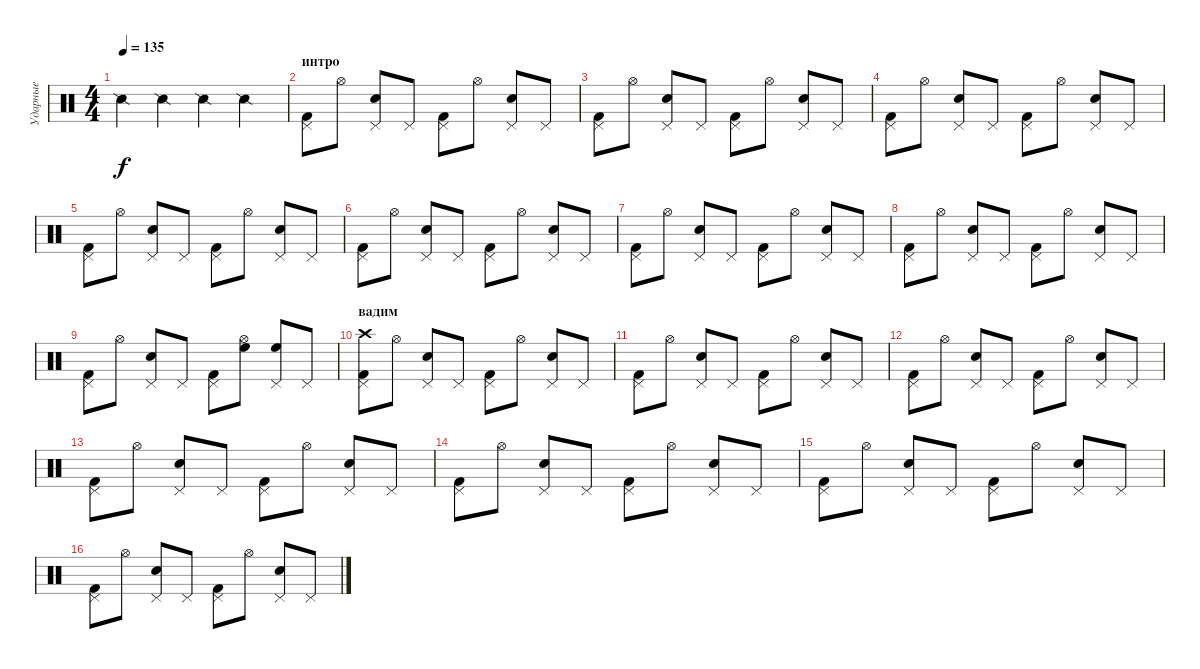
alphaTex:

\track ("Ударные" "Ударные") {instrument percussion}
\staff {score}
\articulation defaults
\ts (4 4)
\tempo 135
\clef neutral
\ks c "Snare (side stick) 2".4{dy f} "Snare (side stick) 2".4 "Snare (side stick) 2".4 "Snare (side stick) 2".4
|
\section ("" "интро")
("Pedal Hi-Hat (hit)" "Kick (hit) 2").8 "Hi-Hat (open)".8 ("Pedal Hi-Hat (hit)" "Snare (hit) 2").8 "Pedal Hi-Hat (hit)".8 ("Pedal Hi-Hat (hit)" "Kick (hit) 2").8 "Hi-Hat (open)".8 ("Pedal Hi-Hat (hit)" "Snare (hit) 2").8 "Pedal Hi-Hat (hit)".8 |
("Pedal Hi-Hat (hit)" "Kick (hit) 2").8 "Hi-Hat (open)".8 ("Pedal Hi-Hat (hit)" "Snare (hit) 2").8 "Pedal Hi-Hat (hit)".8 ("Pedal Hi-Hat (hit)" "Kick (hit) 2").8 "Hi-Hat (open)".8 ("Pedal Hi-Hat (hit)" "Snare (hit) 2").8 "Pedal Hi-Hat (hit)".8 |
("Pedal Hi-Hat (hit)" "Kick (hit) 2").8 "Hi-Hat (open)".8 ("Pedal Hi-Hat (hit)" "Snare (hit) 2").8 "Pedal Hi-Hat (hit)".8 ("Pedal Hi-Hat (hit)" "Kick (hit) 2").8 "Hi-Hat (open)".8 ("Pedal Hi-Hat (hit)" "Snare (hit) 2").8 "Pedal Hi-Hat (hit)".8 |
("Pedal Hi-Hat (hit)" "Kick (hit) 2").8 "Hi-Hat (open)".8 ("Pedal Hi-Hat (hit)" "Snare (hit) 2").8 "Pedal Hi-Hat (hit)".8 ("Pedal Hi-Hat (hit)" "Kick (hit) 2").8 "Hi-Hat (open)".8 ("Pedal Hi-Hat (hit)" "Snare (hit) 2").8 "Pedal Hi-Hat (hit)".8 |
("Pedal Hi-Hat (hit)" "Kick (hit) 2").8 "Hi-Hat (open)".8 ("Pedal Hi-Hat (hit)" "Snare (hit) 2").8 "Pedal Hi-Hat (hit)".8 ("Pedal Hi-Hat (hit)" "Kick (hit) 2").8 "Hi-Hat (open)".8 ("Pedal Hi-Hat (hit)" "Snare (hit) 2").8 "Pedal Hi-Hat (hit)".8 |
("Pedal Hi-Hat (hit)" "Kick (hit) 2").8 "Hi-Hat (open)".8 ("Pedal Hi-Hat (hit)" "Snare (hit) 2").8 "Pedal Hi-Hat (hit)".8 ("Pedal Hi-Hat (hit)" "Kick (hit) 2").8 "Hi-Hat (open)".8 ("Pedal Hi-Hat (hit)" "Snare (hit) 2").8 "Pedal Hi-Hat (hit)".8 |
("Pedal Hi-Hat (hit)" "Kick (hit) 2").8 "Hi-Hat (open)".8 ("Pedal Hi-Hat (hit)" "Snare (hit) 2").8 "Pedal Hi-Hat (hit)".8 ("Pedal Hi-Hat (hit)" "Kick (hit) 2").8 "Hi-Hat (open)".8 ("Pedal Hi-Hat (hit)" "Snare (hit) 2").8 "Pedal Hi-Hat (hit)".8 |
("Pedal Hi-Hat (hit)" "Kick (hit) 2").8 "Hi-Hat (open)".8 ("Pedal Hi-Hat (hit)" "Snare (hit) 2").8 "Pedal Hi-Hat (hit)".8 ("Pedal Hi-Hat (hit)" "Kick (hit) 2").8 ("Hi-Hat (open)" "High Floor Tom (hit)").8 ("Pedal Hi-Hat (hit)" "High Floor Tom (hit)").8 "Pedal Hi-Hat (hit)".8 |
\section ("" "вадим")
("Pedal Hi-Hat (hit)" "Kick (hit) 2" "Crash high (hit)").8 "Hi-Hat (open)".8 ("Pedal Hi-Hat (hit)" "Snare (hit) 2").8 "Pedal Hi-Hat (hit)".8 ("Pedal Hi-Hat (hit)" "Kick (hit) 2").8 "Hi-Hat (open)".8 ("Pedal Hi-Hat (hit)" "Snare (hit) 2").8 "Pedal Hi-Hat (hit)".8 |
("Pedal Hi-Hat (hit)" "Kick (hit) 2").8 "Hi-Hat (open)".8 ("Pedal Hi-Hat (hit)" "Snare (hit) 2").8 "Pedal Hi-Hat (hit)".8 ("Pedal Hi-Hat (hit)" "Kick (hit) 2").8 "Hi-Hat (open)".8 ("Pedal Hi-Hat (hit)" "Snare (hit) 2").8 "Pedal Hi-Hat (hit)".8 |
("Pedal Hi-Hat (hit)" "Kick (hit) 2").8 "Hi-Hat (open)".8 ("Pedal Hi-Hat (hit)" "Snare (hit) 2").8 "Pedal Hi-Hat (hit)".8 ("Pedal Hi-Hat (hit)" "Kick (hit) 2").8 "Hi-Hat (open)".8 ("Pedal Hi-Hat (hit)" "Snare (hit) 2").8 "Pedal Hi-Hat (hit)".8 |
("Pedal Hi-Hat (hit)" "Kick (hit) 2").8 "Hi-Hat (open)".8 ("Pedal Hi-Hat (hit)" "Snare (hit) 2").8 "Pedal Hi-Hat (hit)".8 ("Pedal Hi-Hat (hit)" "Kick (hit) 2").8 "Hi-Hat (open)".8 ("Pedal Hi-Hat (hit)" "Snare (hit) 2").8 "Pedal Hi-Hat (hit)".8 |
("Pedal Hi-Hat (hit)" "Kick (hit) 2").8 "Hi-Hat (open)".8 ("Pedal Hi-Hat (hit)" "Snare (hit) 2").8 "Pedal Hi-Hat (hit)".8 ("Pedal Hi-Hat (hit)" "Kick (hit) 2").8 "Hi-Hat (open)".8 ("Pedal Hi-Hat (hit)" "Snare (hit) 2").8 "Pedal Hi-Hat (hit)".8 |
("Pedal Hi-Hat (hit)" "Kick (hit) 2").8 "Hi-Hat (open)".8 ("Pedal Hi-Hat (hit)" "Snare (hit) 2").8 "Pedal Hi-Hat (hit)".8 ("Pedal Hi-Hat (hit)" "Kick (hit) 2").8 "Hi-Hat (open)".8 ("Pedal Hi-Hat (hit)" "Snare (hit) 2").8 "Pedal Hi-Hat (hit)".8 |
("Pedal Hi-Hat (hit)" "Kick (hit) 2").8 "Hi-Hat (open)".8 ("Pedal Hi-Hat (hit)" "Snare (hit) 2").8 "Pedal Hi-Hat (hit)".8 ("Pedal Hi-Hat (hit)" "Kick (hit) 2").8 "Hi-Hat (open)".8 ("Pedal Hi-Hat (hit)" "Snare (hit) 2").8 "Pedal Hi-Hat (hit)".8
